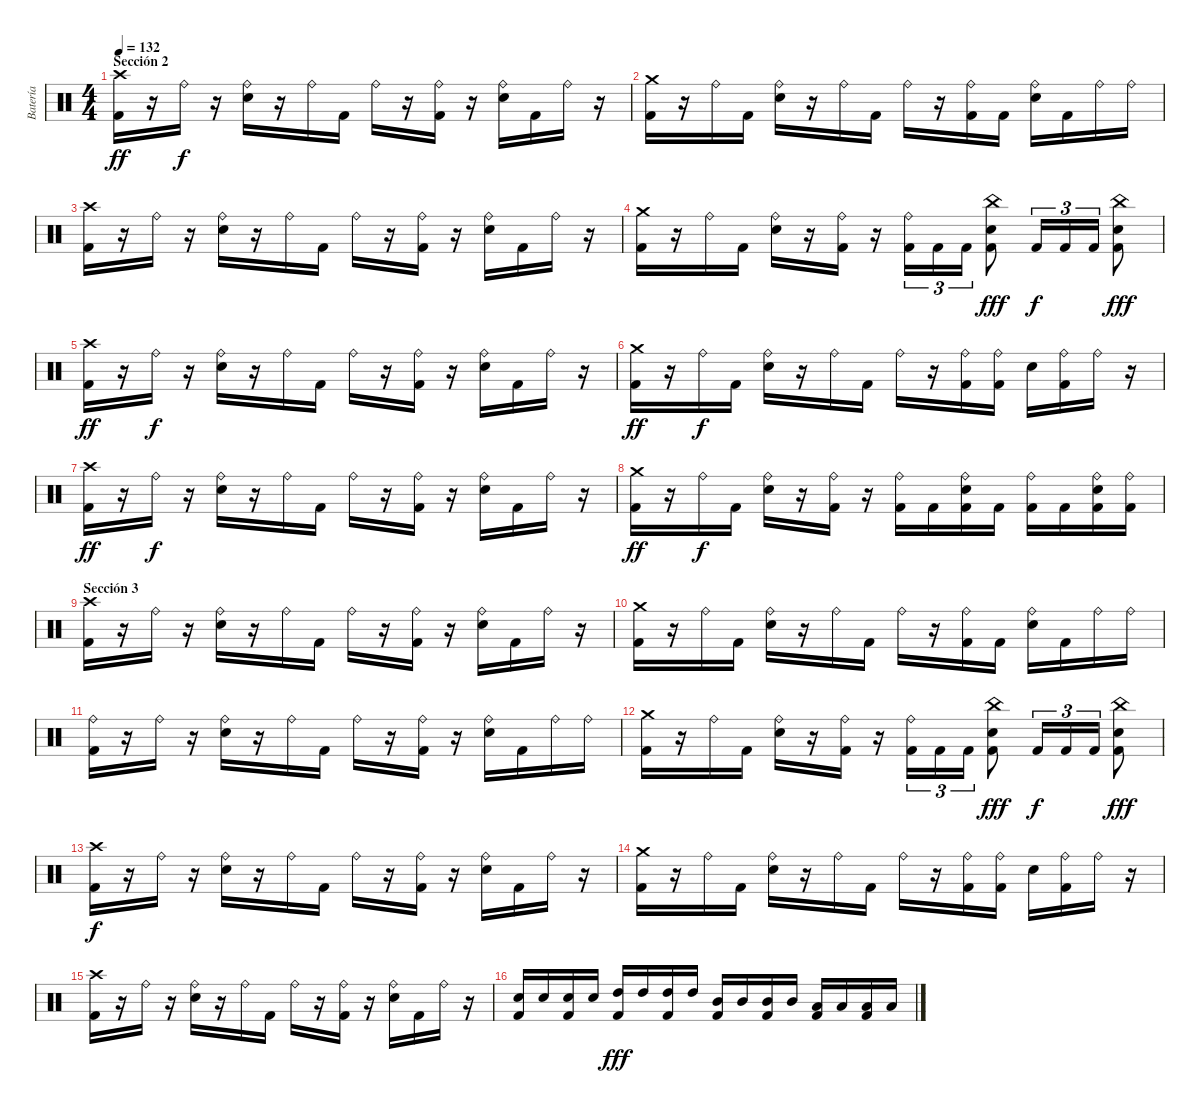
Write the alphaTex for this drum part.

\track ("Batería" "Batería") {instrument percussion}
\staff {score}
\articulation defaults
\ts (4 4)
\section ("" "Sección 2")
\tempo 132
\clef neutral
\ks c
("Crash high (hit)" "Kick (hit) 2").16{dy ff} r.16 "Ride (bell)".16{dy f} r.16 ("Ride (bell)" "Snare (hit) 2").16 r.16 "Ride (bell)".16 "Kick (hit) 2".16 "Ride (bell)".16 r.16 ("Ride (bell)" "Kick (hit) 2").16 r.16 ("Ride (bell)" "Snare (hit) 2").16 "Kick (hit) 2".16 "Ride (bell)".16 r.16 |
("Crash medium (hit)" "Kick (hit) 2").16 r.16 "Ride (bell)".16 "Kick (hit) 2".16 ("Ride (bell)" "Snare (hit) 2").16 r.16 "Ride (bell)".16 "Kick (hit) 2".16 "Ride (bell)".16 r.16 ("Ride (bell)" "Kick (hit) 2").16 "Kick (hit) 2".16 ("Ride (bell)" "Snare (hit) 2").16 "Kick (hit) 2".16 "Ride (bell)".16 "Ride (bell)".16 |
("Crash high (hit)" "Kick (hit) 2").16 r.16 "Ride (bell)".16 r.16 ("Ride (bell)" "Snare (hit) 2").16 r.16 "Ride (bell)".16 "Kick (hit) 2".16 "Ride (bell)".16 r.16 ("Ride (bell)" "Kick (hit) 2").16 r.16 ("Ride (bell)" "Snare (hit) 2").16 "Kick (hit) 2".16 "Ride (bell)".16 r.16 |
("Crash medium (hit)" "Kick (hit) 2").16 r.16 "Ride (bell)".16 "Kick (hit) 2".16 ("Ride (bell)" "Snare (hit) 2").16 r.16 ("Ride (bell)" "Kick (hit) 2").16 r.16 ("Ride (bell)" "Kick (hit) 2").16{tu (3 2)} "Kick (hit) 2".16{tu (3 2)} "Kick (hit) 2".16{tu (3 2)} ("China (hit)" "Kick (hit) 2" "Snare (hit) 2").8{dy fff} "Kick (hit) 2".16{tu (3 2) dy f} "Kick (hit) 2".16{tu (3 2)} "Kick (hit) 2".16{tu (3 2)} ("China (hit)" "Kick (hit) 2" "Snare (hit) 2").8{dy fff} |
("Crash high (hit)" "Kick (hit) 2").16{dy ff} r.16 "Ride (bell)".16{dy f} r.16 ("Ride (bell)" "Snare (hit) 2").16 r.16 "Ride (bell)".16 "Kick (hit) 2".16 "Ride (bell)".16 r.16 ("Ride (bell)" "Kick (hit) 2").16 r.16 ("Ride (bell)" "Snare (hit) 2").16 "Kick (hit) 2".16 "Ride (bell)".16 r.16 |
("Crash medium (hit)" "Kick (hit) 2").16{dy ff} r.16 "Ride (bell)".16{dy f} "Kick (hit) 2".16 ("Ride (bell)" "Snare (hit) 2").16 r.16 "Ride (bell)".16 "Kick (hit) 2".16 "Ride (bell)".16 r.16 ("Ride (bell)" "Kick (hit) 2").16 ("Ride (bell)" "Kick (hit) 2").16 "Snare (hit) 2".16 ("Ride (bell)" "Kick (hit) 2").16 "Ride (bell)".16 r.16 |
("Crash high (hit)" "Kick (hit) 2").16{dy ff} r.16 "Ride (bell)".16{dy f} r.16 ("Ride (bell)" "Snare (hit) 2").16 r.16 "Ride (bell)".16 "Kick (hit) 2".16 "Ride (bell)".16 r.16 ("Ride (bell)" "Kick (hit) 2").16 r.16 ("Ride (bell)" "Snare (hit) 2").16 "Kick (hit) 2".16 "Ride (bell)".16 r.16 |
("Crash medium (hit)" "Kick (hit) 2").16{dy ff} r.16 "Ride (bell)".16{dy f} "Kick (hit) 2".16 ("Ride (bell)" "Snare (hit) 2").16 r.16 ("Ride (bell)" "Kick (hit) 2").16 r.16 ("Ride (bell)" "Kick (hit) 2").16 "Kick (hit) 2".16 ("Ride (bell)" "Kick (hit) 2" "Snare (hit) 2").16 "Kick (hit) 2".16 ("Ride (bell)" "Kick (hit) 2").16 "Kick (hit) 2".16 ("Ride (bell)" "Kick (hit) 2" "Snare (hit) 2").16 ("Ride (bell)" "Kick (hit) 2").16 |
\section ("" "Sección 3")
("Crash high (hit)" "Kick (hit) 2").16 r.16 "Ride (bell)".16 r.16 ("Ride (bell)" "Snare (hit) 2").16 r.16 "Ride (bell)".16 "Kick (hit) 2".16 "Ride (bell)".16 r.16 ("Ride (bell)" "Kick (hit) 2").16 r.16 ("Ride (bell)" "Snare (hit) 2").16 "Kick (hit) 2".16 "Ride (bell)".16 r.16 |
("Crash medium (hit)" "Kick (hit) 2").16 r.16 "Ride (bell)".16 "Kick (hit) 2".16 ("Ride (bell)" "Snare (hit) 2").16 r.16 "Ride (bell)".16 "Kick (hit) 2".16 "Ride (bell)".16 r.16 ("Ride (bell)" "Kick (hit) 2").16 "Kick (hit) 2".16 ("Ride (bell)" "Snare (hit) 2").16 "Kick (hit) 2".16 "Ride (bell)".16 "Ride (bell)".16 |
("Ride (bell)" "Kick (hit) 2").16 r.16 "Ride (bell)".16 r.16 ("Ride (bell)" "Snare (hit) 2").16 r.16 "Ride (bell)".16 "Kick (hit) 2".16 "Ride (bell)".16 r.16 ("Ride (bell)" "Kick (hit) 2").16 r.16 ("Ride (bell)" "Snare (hit) 2").16 "Kick (hit) 2".16 "Ride (bell)".16 "Ride (bell)".16 |
("Crash medium (hit)" "Kick (hit) 2").16 r.16 "Ride (bell)".16 "Kick (hit) 2".16 ("Ride (bell)" "Snare (hit) 2").16 r.16 ("Ride (bell)" "Kick (hit) 2").16 r.16 ("Ride (bell)" "Kick (hit) 2").16{tu (3 2)} "Kick (hit) 2".16{tu (3 2)} "Kick (hit) 2".16{tu (3 2)} ("China (hit)" "Kick (hit) 2" "Snare (hit) 2").8{dy fff} "Kick (hit) 2".16{tu (3 2) dy f} "Kick (hit) 2".16{tu (3 2)} "Kick (hit) 2".16{tu (3 2)} ("China (hit)" "Kick (hit) 2" "Snare (hit) 2").8{dy fff} |
("Crash high (hit)" "Kick (hit) 2").16{dy f} r.16 "Ride (bell)".16 r.16 ("Ride (bell)" "Snare (hit) 2").16 r.16 "Ride (bell)".16 "Kick (hit) 2".16 "Ride (bell)".16 r.16 ("Ride (bell)" "Kick (hit) 2").16 r.16 ("Ride (bell)" "Snare (hit) 2").16 "Kick (hit) 2".16 "Ride (bell)".16 r.16 |
("Crash medium (hit)" "Kick (hit) 2").16 r.16 "Ride (bell)".16 "Kick (hit) 2".16 ("Ride (bell)" "Snare (hit) 2").16 r.16 "Ride (bell)".16 "Kick (hit) 2".16 "Ride (bell)".16 r.16 ("Ride (bell)" "Kick (hit) 2").16 ("Ride (bell)" "Kick (hit) 2").16 "Snare (hit) 2".16 ("Ride (bell)" "Kick (hit) 2").16 "Ride (bell)".16 r.16 |
("Crash high (hit)" "Kick (hit) 2").16 r.16 "Ride (bell)".16 r.16 ("Ride (bell)" "Snare (hit) 2").16 r.16 "Ride (bell)".16 "Kick (hit) 2".16 "Ride (bell)".16 r.16 ("Ride (bell)" "Kick (hit) 2").16 r.16 ("Ride (bell)" "Snare (hit) 2").16 "Kick (hit) 2".16 "Ride (bell)".16 r.16 |
("Kick (hit) 2" "Snare (hit) 2").16{volume 15} "Snare (hit) 2".16 ("Kick (hit) 2" "Snare (hit) 2").16 "Snare (hit) 2".16 ("Kick (hit) 2" "High Tom (hit)").16{dy fff volume 16} "High Tom (hit)".16 ("Kick (hit) 2" "High Tom (hit)").16 "High Tom (hit)".16 ("Kick (hit) 2" "Mid Tom (hit)").16 "Mid Tom (hit)".16 ("Kick (hit) 2" "Mid Tom (hit)").16 "Mid Tom (hit)".16 ("Kick (hit) 2" "Low Tom (hit)").16 "Low Tom (hit)".16 ("Kick (hit) 2" "Low Tom (hit)").16 "Low Tom (hit)".16
